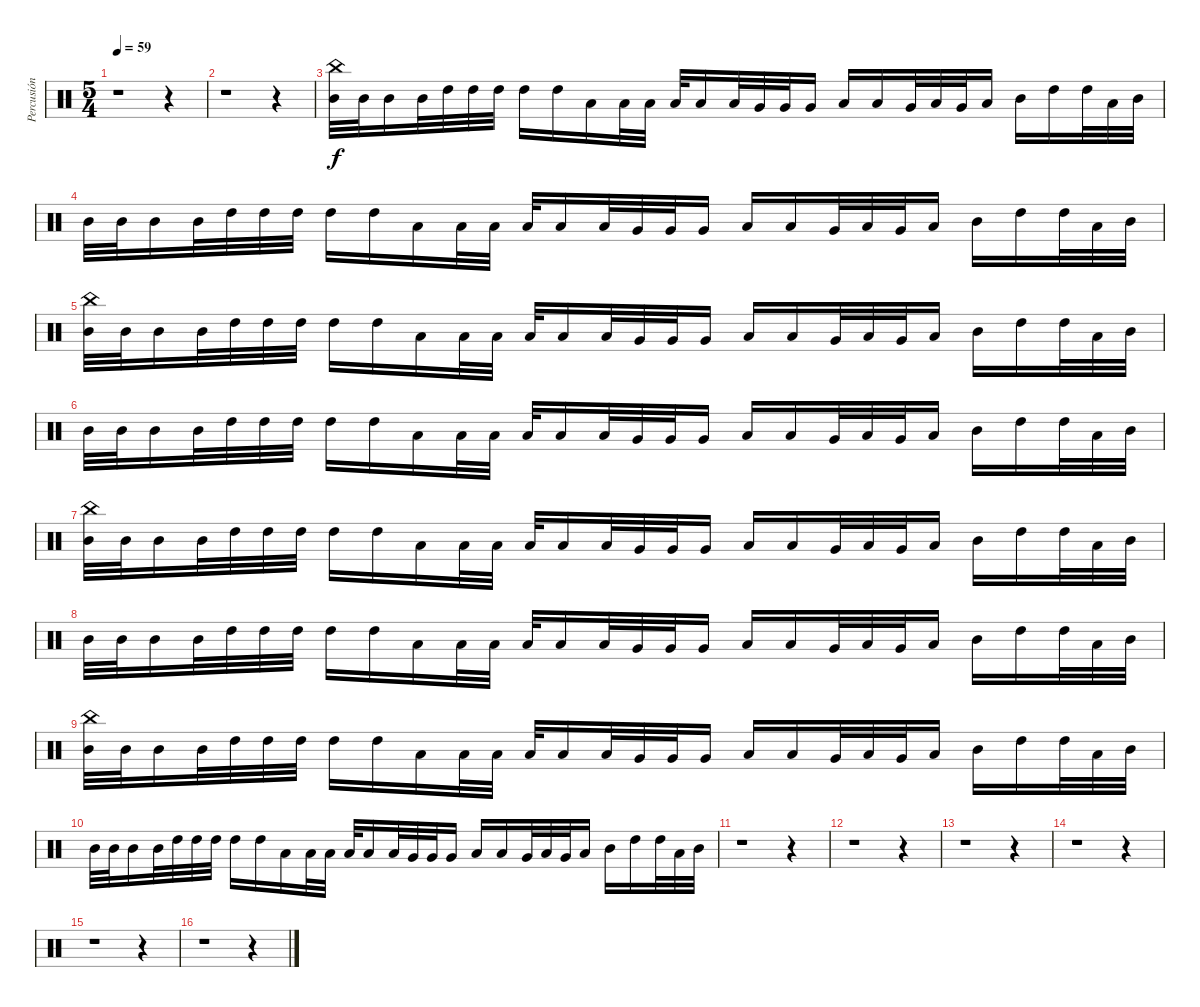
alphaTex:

\track ("Percusión" "Percusión") {instrument percussion}
\staff {score}
\articulation defaults
\ts (5 4)
\tempo 59
\clef neutral
\ks c
r.1{dy f} r.4 |
r.1 r.4 |
("Mid Tom (hit)" "China (hit)").32 "Mid Tom (hit)".32 "Mid Tom (hit)".16 "Mid Tom (hit)".32 "High Tom (hit)".32 "High Tom (hit)".32 "High Tom (hit)".32 "High Tom (hit)".16 "High Tom (hit)".16 "Low Tom (hit)".16 "Low Tom (hit)".32 "Low Tom (hit)".32 "Low Tom (hit)".32 "Low Tom (hit)".16 "Low Tom (hit)".32 "Very Low Tom (hit)".32 "Very Low Tom (hit)".32 "Very Low Tom (hit)".16 "Low Floor Tom (hit)".16 "Low Floor Tom (hit)".16 "Very Low Tom (hit)".32 "Low Tom (hit)".32 "Very Low Tom (hit)".32 "Low Tom (hit)".16 "Mid Tom (hit)".16 "High Tom (hit)".16 "High Tom (hit)".32 "Low Tom (hit)".32 "Mid Tom (hit)".32 |
"Mid Tom (hit)".32 "Mid Tom (hit)".32 "Mid Tom (hit)".16 "Mid Tom (hit)".32 "High Tom (hit)".32 "High Tom (hit)".32 "High Tom (hit)".32 "High Tom (hit)".16 "High Tom (hit)".16 "Low Tom (hit)".16 "Low Tom (hit)".32 "Low Tom (hit)".32 "Low Tom (hit)".32 "Low Tom (hit)".16 "Low Tom (hit)".32 "Very Low Tom (hit)".32 "Very Low Tom (hit)".32 "Very Low Tom (hit)".16 "Low Floor Tom (hit)".16 "Low Floor Tom (hit)".16 "Very Low Tom (hit)".32 "Low Tom (hit)".32 "Very Low Tom (hit)".32 "Low Tom (hit)".16 "Mid Tom (hit)".16 "High Tom (hit)".16 "High Tom (hit)".32 "Low Tom (hit)".32 "Mid Tom (hit)".32 |
("Mid Tom (hit)" "China (hit)").32 "Mid Tom (hit)".32 "Mid Tom (hit)".16 "Mid Tom (hit)".32 "High Tom (hit)".32 "High Tom (hit)".32 "High Tom (hit)".32 "High Tom (hit)".16 "High Tom (hit)".16 "Low Tom (hit)".16 "Low Tom (hit)".32 "Low Tom (hit)".32 "Low Tom (hit)".32 "Low Tom (hit)".16 "Low Tom (hit)".32 "Very Low Tom (hit)".32 "Very Low Tom (hit)".32 "Very Low Tom (hit)".16 "Low Floor Tom (hit)".16 "Low Floor Tom (hit)".16 "Very Low Tom (hit)".32 "Low Tom (hit)".32 "Very Low Tom (hit)".32 "Low Tom (hit)".16 "Mid Tom (hit)".16 "High Tom (hit)".16 "High Tom (hit)".32 "Low Tom (hit)".32 "Mid Tom (hit)".32 |
"Mid Tom (hit)".32 "Mid Tom (hit)".32 "Mid Tom (hit)".16 "Mid Tom (hit)".32 "High Tom (hit)".32 "High Tom (hit)".32 "High Tom (hit)".32 "High Tom (hit)".16 "High Tom (hit)".16 "Low Tom (hit)".16 "Low Tom (hit)".32 "Low Tom (hit)".32 "Low Tom (hit)".32 "Low Tom (hit)".16 "Low Tom (hit)".32 "Very Low Tom (hit)".32 "Very Low Tom (hit)".32 "Very Low Tom (hit)".16 "Low Floor Tom (hit)".16 "Low Floor Tom (hit)".16 "Very Low Tom (hit)".32 "Low Tom (hit)".32 "Very Low Tom (hit)".32 "Low Tom (hit)".16 "Mid Tom (hit)".16 "High Tom (hit)".16 "High Tom (hit)".32 "Low Tom (hit)".32 "Mid Tom (hit)".32 |
("Mid Tom (hit)" "China (hit)").32 "Mid Tom (hit)".32 "Mid Tom (hit)".16 "Mid Tom (hit)".32 "High Tom (hit)".32 "High Tom (hit)".32 "High Tom (hit)".32 "High Tom (hit)".16 "High Tom (hit)".16 "Low Tom (hit)".16 "Low Tom (hit)".32 "Low Tom (hit)".32 "Low Tom (hit)".32 "Low Tom (hit)".16 "Low Tom (hit)".32 "Very Low Tom (hit)".32 "Very Low Tom (hit)".32 "Very Low Tom (hit)".16 "Low Floor Tom (hit)".16 "Low Floor Tom (hit)".16 "Very Low Tom (hit)".32 "Low Tom (hit)".32 "Very Low Tom (hit)".32 "Low Tom (hit)".16 "Mid Tom (hit)".16 "High Tom (hit)".16 "High Tom (hit)".32 "Low Tom (hit)".32 "Mid Tom (hit)".32 |
"Mid Tom (hit)".32 "Mid Tom (hit)".32 "Mid Tom (hit)".16 "Mid Tom (hit)".32 "High Tom (hit)".32 "High Tom (hit)".32 "High Tom (hit)".32 "High Tom (hit)".16 "High Tom (hit)".16 "Low Tom (hit)".16 "Low Tom (hit)".32 "Low Tom (hit)".32 "Low Tom (hit)".32 "Low Tom (hit)".16 "Low Tom (hit)".32 "Very Low Tom (hit)".32 "Very Low Tom (hit)".32 "Very Low Tom (hit)".16 "Low Floor Tom (hit)".16 "Low Floor Tom (hit)".16 "Very Low Tom (hit)".32 "Low Tom (hit)".32 "Very Low Tom (hit)".32 "Low Tom (hit)".16 "Mid Tom (hit)".16 "High Tom (hit)".16 "High Tom (hit)".32 "Low Tom (hit)".32 "Mid Tom (hit)".32 |
("Mid Tom (hit)" "China (hit)").32 "Mid Tom (hit)".32 "Mid Tom (hit)".16 "Mid Tom (hit)".32 "High Tom (hit)".32 "High Tom (hit)".32 "High Tom (hit)".32 "High Tom (hit)".16 "High Tom (hit)".16 "Low Tom (hit)".16 "Low Tom (hit)".32 "Low Tom (hit)".32 "Low Tom (hit)".32 "Low Tom (hit)".16 "Low Tom (hit)".32 "Very Low Tom (hit)".32 "Very Low Tom (hit)".32 "Very Low Tom (hit)".16 "Low Floor Tom (hit)".16 "Low Floor Tom (hit)".16 "Very Low Tom (hit)".32 "Low Tom (hit)".32 "Very Low Tom (hit)".32 "Low Tom (hit)".16 "Mid Tom (hit)".16 "High Tom (hit)".16 "High Tom (hit)".32 "Low Tom (hit)".32 "Mid Tom (hit)".32 |
"Mid Tom (hit)".32 "Mid Tom (hit)".32 "Mid Tom (hit)".16 "Mid Tom (hit)".32 "High Tom (hit)".32 "High Tom (hit)".32 "High Tom (hit)".32 "High Tom (hit)".16 "High Tom (hit)".16 "Low Tom (hit)".16 "Low Tom (hit)".32 "Low Tom (hit)".32 "Low Tom (hit)".32 "Low Tom (hit)".16 "Low Tom (hit)".32 "Very Low Tom (hit)".32 "Very Low Tom (hit)".32 "Very Low Tom (hit)".16 "Low Floor Tom (hit)".16 "Low Floor Tom (hit)".16 "Very Low Tom (hit)".32 "Low Tom (hit)".32 "Very Low Tom (hit)".32 "Low Tom (hit)".16 "Mid Tom (hit)".16 "High Tom (hit)".16 "High Tom (hit)".32 "Low Tom (hit)".32 "Mid Tom (hit)".32 |
r.1 r.4 |
r.1 r.4 |
r.1 r.4 |
r.1 r.4 |
r.1 r.4 |
r.1 r.4
